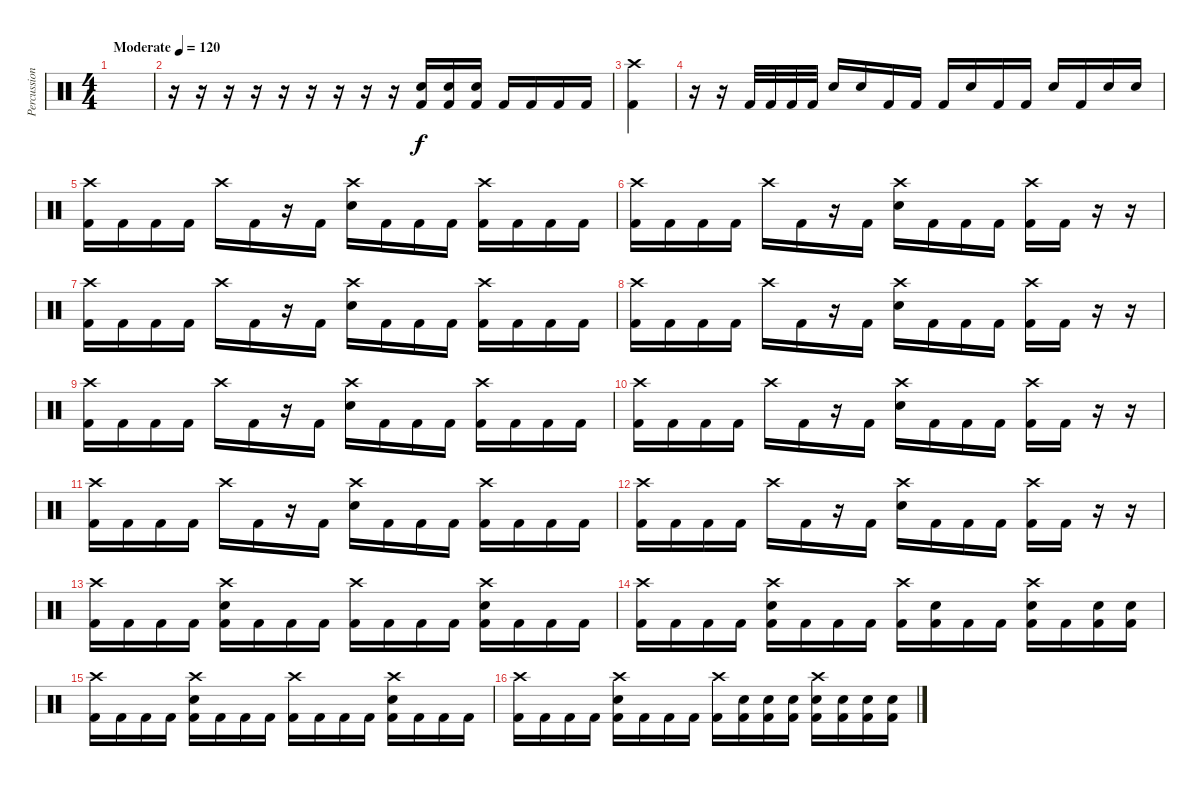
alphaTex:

\track ("Percussion" "Percussion") {instrument percussion}
\staff {score}
\articulation defaults
\ts (4 4)
\tempo (120 "Moderate")
\clef neutral
\ks c
|
r.16 r.16 r.16 r.16 r.16 r.16 r.16 r.16 r.16 ("Snare (hit) 2" "Kick (hit) 2").16 ("Snare (hit) 2" "Kick (hit) 2").16 ("Snare (hit) 2" "Kick (hit) 2").16 "Kick (hit) 2".16 "Kick (hit) 2".16 "Kick (hit) 2".16 "Kick (hit) 2".16 |
("Crash high (hit)" "Kick (hit) 2").4 |
r.16 r.16 "Kick (hit) 2".32 "Kick (hit) 2".32 "Kick (hit) 2".32 "Kick (hit) 2".32 "Snare (hit) 2".16 "Snare (hit) 2".16 "Kick (hit) 2".16 "Kick (hit) 2".16 "Kick (hit) 2".16 "Snare (hit) 2".16 "Kick (hit) 2".16 "Kick (hit) 2".16 "Snare (hit) 2".16 "Kick (hit) 2".16 "Snare (hit) 2".16 "Snare (hit) 2".16 |
("Crash high (hit)" "Kick (hit) 2").16 "Kick (hit) 2".16 "Kick (hit) 2".16 "Kick (hit) 2".16 "Crash high (hit)".16 "Kick (hit) 2".16 r.16 "Kick (hit) 2".16 ("Crash high (hit)" "Snare (hit) 2").16 "Kick (hit) 2".16 "Kick (hit) 2".16 "Kick (hit) 2".16 ("Crash high (hit)" "Kick (hit) 2").16 "Kick (hit) 2".16 "Kick (hit) 2".16 "Kick (hit) 2".16 |
("Crash high (hit)" "Kick (hit) 2").16 "Kick (hit) 2".16 "Kick (hit) 2".16 "Kick (hit) 2".16 "Crash high (hit)".16 "Kick (hit) 2".16 r.16 "Kick (hit) 2".16 ("Crash high (hit)" "Snare (hit) 2").16 "Kick (hit) 2".16 "Kick (hit) 2".16 "Kick (hit) 2".16 ("Crash high (hit)" "Kick (hit) 2").16 "Kick (hit) 2".16 r.16 r.16 |
("Crash high (hit)" "Kick (hit) 2").16 "Kick (hit) 2".16 "Kick (hit) 2".16 "Kick (hit) 2".16 "Crash high (hit)".16 "Kick (hit) 2".16 r.16 "Kick (hit) 2".16 ("Crash high (hit)" "Snare (hit) 2").16 "Kick (hit) 2".16 "Kick (hit) 2".16 "Kick (hit) 2".16 ("Crash high (hit)" "Kick (hit) 2").16 "Kick (hit) 2".16 "Kick (hit) 2".16 "Kick (hit) 2".16 |
("Crash high (hit)" "Kick (hit) 2").16 "Kick (hit) 2".16 "Kick (hit) 2".16 "Kick (hit) 2".16 "Crash high (hit)".16 "Kick (hit) 2".16 r.16 "Kick (hit) 2".16 ("Crash high (hit)" "Snare (hit) 2").16 "Kick (hit) 2".16 "Kick (hit) 2".16 "Kick (hit) 2".16 ("Crash high (hit)" "Kick (hit) 2").16 "Kick (hit) 2".16 r.16 r.16 |
("Crash high (hit)" "Kick (hit) 2").16 "Kick (hit) 2".16 "Kick (hit) 2".16 "Kick (hit) 2".16 "Crash high (hit)".16 "Kick (hit) 2".16 r.16 "Kick (hit) 2".16 ("Crash high (hit)" "Snare (hit) 2").16 "Kick (hit) 2".16 "Kick (hit) 2".16 "Kick (hit) 2".16 ("Crash high (hit)" "Kick (hit) 2").16 "Kick (hit) 2".16 "Kick (hit) 2".16 "Kick (hit) 2".16 |
("Crash high (hit)" "Kick (hit) 2").16 "Kick (hit) 2".16 "Kick (hit) 2".16 "Kick (hit) 2".16 "Crash high (hit)".16 "Kick (hit) 2".16 r.16 "Kick (hit) 2".16 ("Crash high (hit)" "Snare (hit) 2").16 "Kick (hit) 2".16 "Kick (hit) 2".16 "Kick (hit) 2".16 ("Crash high (hit)" "Kick (hit) 2").16 "Kick (hit) 2".16 r.16 r.16 |
("Crash high (hit)" "Kick (hit) 2").16 "Kick (hit) 2".16 "Kick (hit) 2".16 "Kick (hit) 2".16 "Crash high (hit)".16 "Kick (hit) 2".16 r.16 "Kick (hit) 2".16 ("Crash high (hit)" "Snare (hit) 2").16 "Kick (hit) 2".16 "Kick (hit) 2".16 "Kick (hit) 2".16 ("Crash high (hit)" "Kick (hit) 2").16 "Kick (hit) 2".16 "Kick (hit) 2".16 "Kick (hit) 2".16 |
("Crash high (hit)" "Kick (hit) 2").16 "Kick (hit) 2".16 "Kick (hit) 2".16 "Kick (hit) 2".16 "Crash high (hit)".16 "Kick (hit) 2".16 r.16 "Kick (hit) 2".16 ("Crash high (hit)" "Snare (hit) 2").16 "Kick (hit) 2".16 "Kick (hit) 2".16 "Kick (hit) 2".16 ("Crash high (hit)" "Kick (hit) 2").16 "Kick (hit) 2".16 r.16 r.16 |
("Crash high (hit)" "Kick (hit) 2").16 "Kick (hit) 2".16 "Kick (hit) 2".16 "Kick (hit) 2".16 ("Crash high (hit)" "Snare (hit) 2" "Kick (hit) 2").16 "Kick (hit) 2".16 "Kick (hit) 2".16 "Kick (hit) 2".16 ("Crash high (hit)" "Kick (hit) 2").16 "Kick (hit) 2".16 "Kick (hit) 2".16 "Kick (hit) 2".16 ("Crash high (hit)" "Snare (hit) 2" "Kick (hit) 2").16 "Kick (hit) 2".16 "Kick (hit) 2".16 "Kick (hit) 2".16 |
("Crash high (hit)" "Kick (hit) 2").16 "Kick (hit) 2".16 "Kick (hit) 2".16 "Kick (hit) 2".16 ("Crash high (hit)" "Snare (hit) 2" "Kick (hit) 2").16 "Kick (hit) 2".16 "Kick (hit) 2".16 "Kick (hit) 2".16 ("Crash high (hit)" "Kick (hit) 2").16 ("Snare (hit) 2" "Kick (hit) 2").16 "Kick (hit) 2".16 "Kick (hit) 2".16 ("Crash high (hit)" "Snare (hit) 2" "Kick (hit) 2").16 "Kick (hit) 2".16 ("Snare (hit) 2" "Kick (hit) 2").16 ("Snare (hit) 2" "Kick (hit) 2").16 |
("Crash high (hit)" "Kick (hit) 2").16 "Kick (hit) 2".16 "Kick (hit) 2".16 "Kick (hit) 2".16 ("Crash high (hit)" "Snare (hit) 2" "Kick (hit) 2").16 "Kick (hit) 2".16 "Kick (hit) 2".16 "Kick (hit) 2".16 ("Crash high (hit)" "Kick (hit) 2").16 "Kick (hit) 2".16 "Kick (hit) 2".16 "Kick (hit) 2".16 ("Crash high (hit)" "Snare (hit) 2" "Kick (hit) 2").16 "Kick (hit) 2".16 "Kick (hit) 2".16 "Kick (hit) 2".16 |
("Crash high (hit)" "Kick (hit) 2").16 "Kick (hit) 2".16 "Kick (hit) 2".16 "Kick (hit) 2".16 ("Crash high (hit)" "Snare (hit) 2" "Kick (hit) 2").16 "Kick (hit) 2".16 "Kick (hit) 2".16 "Kick (hit) 2".16 ("Crash high (hit)" "Kick (hit) 2").16 ("Snare (hit) 2" "Kick (hit) 2").16 ("Snare (hit) 2" "Kick (hit) 2").16 ("Snare (hit) 2" "Kick (hit) 2").16 ("Crash high (hit)" "Snare (hit) 2" "Kick (hit) 2").16 ("Snare (hit) 2" "Kick (hit) 2").16 ("Snare (hit) 2" "Kick (hit) 2").16 ("Snare (hit) 2" "Kick (hit) 2").16
